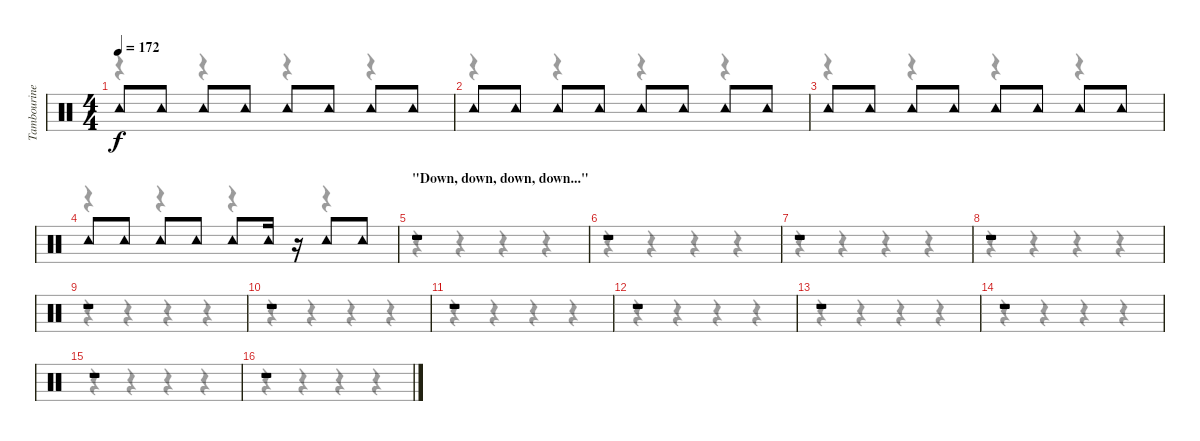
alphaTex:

\track ("Tambourine" "Tambourine") {instrument percussion}
\staff {score}
\articulation defaults
\voice
\ts (4 4)
\tempo 172
\clef neutral
\ks c "Tambourine (hit)".8{dy f} "Tambourine (hit)".8 "Tambourine (hit)".8 "Tambourine (hit)".8 "Tambourine (hit)".8 "Tambourine (hit)".8 "Tambourine (hit)".8 "Tambourine (hit)".8
|
"Tambourine (hit)".8 "Tambourine (hit)".8 "Tambourine (hit)".8 "Tambourine (hit)".8 "Tambourine (hit)".8 "Tambourine (hit)".8 "Tambourine (hit)".8 "Tambourine (hit)".8 |
"Tambourine (hit)".8 "Tambourine (hit)".8 "Tambourine (hit)".8 "Tambourine (hit)".8 "Tambourine (hit)".8 "Tambourine (hit)".8 "Tambourine (hit)".8 "Tambourine (hit)".8 |
"Tambourine (hit)".8 "Tambourine (hit)".8 "Tambourine (hit)".8 "Tambourine (hit)".8 "Tambourine (hit)".8 "Tambourine (hit)".16 r.16 "Tambourine (hit)".8 "Tambourine (hit)".8 |
\section ("" "\"Down, down, down, down...\"")
r.1 |
r.1 |
r.1 |
r.1 |
r.1 |
r.1 |
r.1 |
r.1 |
r.1 |
r.1 |
r.1 |
r.1
\voice
\clef neutral
\ottava regular
\simile none
\ks c
r.4{dy f} r.4 r.4 r.4 |
r.4 r.4 r.4 r.4 |
r.4 r.4 r.4 r.4 |
r.4 r.4 r.4 r.4 |
r.4 r.4 r.4 r.4 |
r.4 r.4 r.4 r.4 |
r.4 r.4 r.4 r.4 |
r.4 r.4 r.4 r.4 |
r.4 r.4 r.4 r.4 |
r.4 r.4 r.4 r.4 |
r.4 r.4 r.4 r.4 |
r.4 r.4 r.4 r.4 |
r.4 r.4 r.4 r.4 |
r.4 r.4 r.4 r.4 |
r.4 r.4 r.4 r.4 |
r.4 r.4 r.4 r.4
